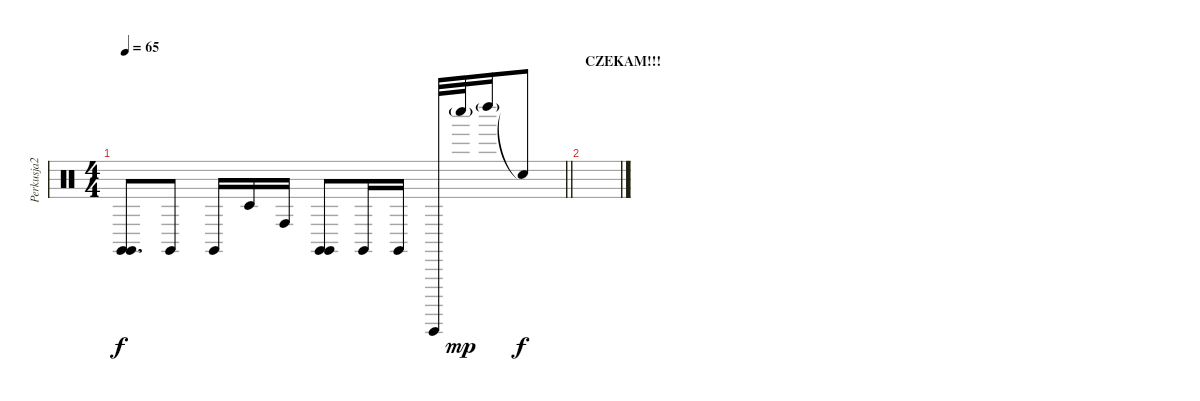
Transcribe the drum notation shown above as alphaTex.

\track ("Perkusja2" "Perkusja2") {instrument percussion}
\staff {score}
\articulation defaults
\ts (4 4)
\tempo 65
\clef neutral
\barLineRight lightlight
\ks c
("Claves (hit)" "Claves (hit)").8{d dy f} "Claves (hit)".8 "Claves (hit)".16 "Timbale low (hit)".16 "Conga high (hit)".16 ("Claves (hit)" "Claves (hit)").8 "Claves (hit)".16 "Claves (hit)".16 "Guiro (hit)".32 "Whistle low (hit)"{g}.32{dy mp} "Left Maraca (hit)"{g}.16 "Snare (hit)"{t}.8{dy f} |
\section ("" "CZEKAM!!!")
